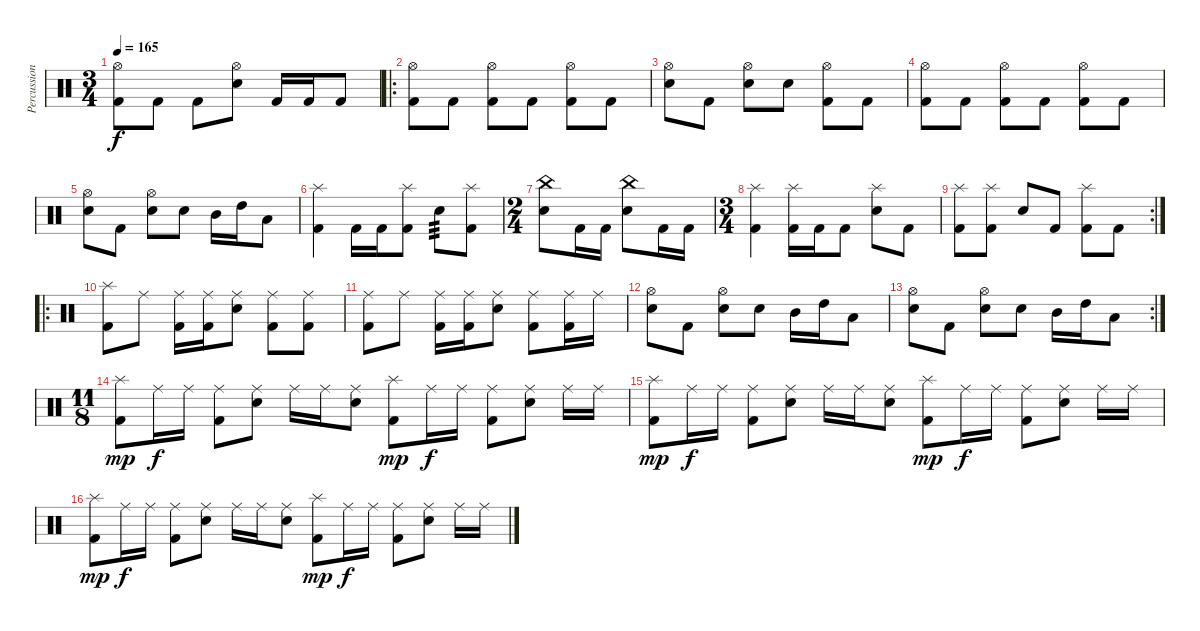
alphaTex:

\track ("Percussion" "Percussion") {instrument percussion}
\staff {score}
\articulation defaults
\ts (3 4)
\tempo 165
\clef neutral
\ks c
("Hi-Hat (open)" "Kick (hit) 2").8{dy f} "Kick (hit) 2".8 "Kick (hit) 2".8 ("Hi-Hat (open)" "Electric Snare (hit)").8 "Kick (hit) 2".16 "Kick (hit) 2".16 "Kick (hit) 2".8 |
\ro
("Hi-Hat (open)" "Kick (hit) 2").8 "Kick (hit) 2".8 ("Hi-Hat (open)" "Kick (hit) 2").8 "Kick (hit) 2".8 ("Hi-Hat (open)" "Kick (hit) 2").8 "Kick (hit) 2".8 |
("Hi-Hat (open)" "Electric Snare (hit)").8 "Kick (hit) 2".8 ("Hi-Hat (open)" "Electric Snare (hit)").8 "Electric Snare (hit)".8 ("Hi-Hat (open)" "Kick (hit) 2").8 "Kick (hit) 2".8 |
("Hi-Hat (open)" "Kick (hit) 2").8 "Kick (hit) 2".8 ("Hi-Hat (open)" "Kick (hit) 2").8 "Kick (hit) 2".8 ("Hi-Hat (open)" "Kick (hit) 2").8 "Kick (hit) 2".8 |
("Hi-Hat (open)" "Electric Snare (hit)").8 "Kick (hit) 2".8 ("Hi-Hat (open)" "Electric Snare (hit)").8 "Electric Snare (hit)".8 "Mid Tom (hit)".16 "High Tom (hit)".16 "Low Tom (hit)".8 |
("Splash (hit)" "Kick (hit) 2").4 "Kick (hit) 2".16 "Kick (hit) 2".16 ("Splash (hit)" "Kick (hit) 2").8 "Electric Snare (hit)".8{tp 3} ("Splash (hit)" "Kick (hit) 2").8 |
\ts (2 4)
("China (hit)" "Electric Snare (hit)").8 "Kick (hit) 2".16 "Kick (hit) 2".16 ("China (hit)" "Electric Snare (hit)").8 "Kick (hit) 2".16 "Kick (hit) 2".16 |
\ts (3 4)
("Splash (hit)" "Kick (hit) 2").4 ("Splash (hit)" "Kick (hit) 2").16 "Kick (hit) 2".16 "Kick (hit) 2".8 ("Splash (hit)" "Electric Snare (hit)").8 "Kick (hit) 2".8 |
\rc 2
("Splash (hit)" "Kick (hit) 2").8 ("Splash (hit)" "Kick (hit) 2").8 "Electric Snare (hit)".8 "Kick (hit) 2".8 ("Splash (hit)" "Kick (hit) 2").8 "Kick (hit) 2".8 |
\ro
("Splash (hit)" "Kick (hit) 2").8 "Ride (middle)".8 ("Ride (middle)" "Kick (hit) 2").16 ("Ride (middle)" "Kick (hit) 2").16 ("Ride (middle)" "Electric Snare (hit)").8 ("Ride (middle)" "Kick (hit) 2").8 ("Ride (middle)" "Kick (hit) 2").8 |
("Ride (middle)" "Kick (hit) 2").8 "Ride (middle)".8 ("Ride (middle)" "Kick (hit) 2").16 ("Ride (middle)" "Kick (hit) 2").16 ("Ride (middle)" "Electric Snare (hit)").8 ("Ride (middle)" "Kick (hit) 2").8 ("Ride (middle)" "Kick (hit) 2").16 "Ride (middle)".16 |
("Hi-Hat (open)" "Electric Snare (hit)").8 "Kick (hit) 2".8 ("Hi-Hat (open)" "Electric Snare (hit)").8 "Electric Snare (hit)".8 "Mid Tom (hit)".16 "High Tom (hit)".16 "Low Tom (hit)".8 |
\rc 2
("Hi-Hat (open)" "Electric Snare (hit)").8 "Kick (hit) 2".8 ("Hi-Hat (open)" "Electric Snare (hit)").8 "Electric Snare (hit)".8 "Mid Tom (hit)".16 "High Tom (hit)".16 "Low Tom (hit)".8 |
\ts (11 8)
("Splash (hit)" "Kick (hit) 2").8{dy mp} "Ride (middle)".16{dy f} "Ride (middle)".16 ("Ride (middle)" "Kick (hit) 2").8 ("Ride (middle)" "Electric Snare (hit)").8 "Ride (middle)".16 "Ride (middle)".16 ("Ride (middle)" "Electric Snare (hit)").8 ("Splash (hit)" "Kick (hit) 2").8{dy mp} "Ride (middle)".16{dy f} "Ride (middle)".16 ("Ride (middle)" "Kick (hit) 2").8 ("Ride (middle)" "Electric Snare (hit)").8 "Ride (middle)".16 "Ride (middle)".16 |
("Splash (hit)" "Kick (hit) 2").8{dy mp} "Ride (middle)".16{dy f} "Ride (middle)".16 ("Ride (middle)" "Kick (hit) 2").8 ("Ride (middle)" "Electric Snare (hit)").8 "Ride (middle)".16 "Ride (middle)".16 ("Ride (middle)" "Electric Snare (hit)").8 ("Splash (hit)" "Kick (hit) 2").8{dy mp} "Ride (middle)".16{dy f} "Ride (middle)".16 ("Ride (middle)" "Kick (hit) 2").8 ("Ride (middle)" "Electric Snare (hit)").8 "Ride (middle)".16 "Ride (middle)".16 |
("Splash (hit)" "Kick (hit) 2").8{dy mp} "Ride (middle)".16{dy f} "Ride (middle)".16 ("Ride (middle)" "Kick (hit) 2").8 ("Ride (middle)" "Electric Snare (hit)").8 "Ride (middle)".16 "Ride (middle)".16 ("Ride (middle)" "Electric Snare (hit)").8 ("Splash (hit)" "Kick (hit) 2").8{dy mp} "Ride (middle)".16{dy f} "Ride (middle)".16 ("Ride (middle)" "Kick (hit) 2").8 ("Ride (middle)" "Electric Snare (hit)").8 "Ride (middle)".16 "Ride (middle)".16
